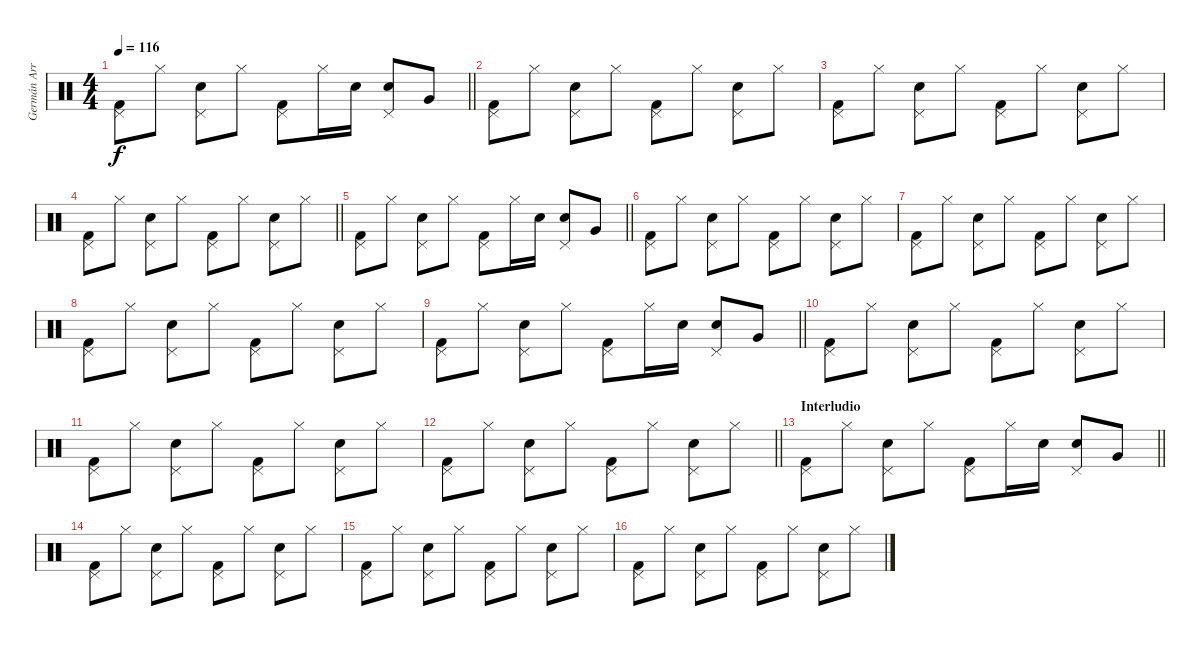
\track ("Germán Arroyo (Batería)" "Germán Arr") {instrument percussion}
\staff {score}
\articulation defaults
\ts (4 4)
\tempo 116
\clef neutral
\barLineRight lightlight
\ks c
("Pedal Hi-Hat (hit)" "Kick (hit) 2").8{dy f} "Hi-Hat (closed)".8 ("Pedal Hi-Hat (hit)" "Snare (hit) 2").8 "Hi-Hat (closed)".8 ("Pedal Hi-Hat (hit)" "Kick (hit) 2").8 "Hi-Hat (closed)".16 "Snare (hit) 2".16 ("Pedal Hi-Hat (hit)" "Snare (hit) 2").8 "Very Low Tom (hit)".8 |
("Pedal Hi-Hat (hit)" "Kick (hit) 2").8 "Hi-Hat (closed)".8 ("Pedal Hi-Hat (hit)" "Snare (hit) 2").8 "Hi-Hat (closed)".8 ("Pedal Hi-Hat (hit)" "Kick (hit) 2").8 "Hi-Hat (closed)".8 ("Pedal Hi-Hat (hit)" "Snare (hit) 2").8 "Hi-Hat (closed)".8 |
("Pedal Hi-Hat (hit)" "Kick (hit) 2").8 "Hi-Hat (closed)".8 ("Pedal Hi-Hat (hit)" "Snare (hit) 2").8 "Hi-Hat (closed)".8 ("Pedal Hi-Hat (hit)" "Kick (hit) 2").8 "Hi-Hat (closed)".8 ("Pedal Hi-Hat (hit)" "Snare (hit) 2").8 "Hi-Hat (closed)".8 |
\barLineRight lightlight
("Pedal Hi-Hat (hit)" "Kick (hit) 2").8 "Hi-Hat (closed)".8 ("Pedal Hi-Hat (hit)" "Snare (hit) 2").8 "Hi-Hat (closed)".8 ("Pedal Hi-Hat (hit)" "Kick (hit) 2").8 "Hi-Hat (closed)".8 ("Pedal Hi-Hat (hit)" "Snare (hit) 2").8 "Hi-Hat (closed)".8 |
\barLineRight lightlight
("Pedal Hi-Hat (hit)" "Kick (hit) 2").8 "Hi-Hat (closed)".8 ("Pedal Hi-Hat (hit)" "Snare (hit) 2").8 "Hi-Hat (closed)".8 ("Pedal Hi-Hat (hit)" "Kick (hit) 2").8 "Hi-Hat (closed)".16 "Snare (hit) 2".16 ("Pedal Hi-Hat (hit)" "Snare (hit) 2").8 "Very Low Tom (hit)".8 |
("Pedal Hi-Hat (hit)" "Kick (hit) 2").8 "Hi-Hat (closed)".8 ("Pedal Hi-Hat (hit)" "Snare (hit) 2").8 "Hi-Hat (closed)".8 ("Pedal Hi-Hat (hit)" "Kick (hit) 2").8 "Hi-Hat (closed)".8 ("Pedal Hi-Hat (hit)" "Snare (hit) 2").8 "Hi-Hat (closed)".8 |
("Pedal Hi-Hat (hit)" "Kick (hit) 2").8 "Hi-Hat (closed)".8 ("Pedal Hi-Hat (hit)" "Snare (hit) 2").8 "Hi-Hat (closed)".8 ("Pedal Hi-Hat (hit)" "Kick (hit) 2").8 "Hi-Hat (closed)".8 ("Pedal Hi-Hat (hit)" "Snare (hit) 2").8 "Hi-Hat (closed)".8 |
("Pedal Hi-Hat (hit)" "Kick (hit) 2").8 "Hi-Hat (closed)".8 ("Pedal Hi-Hat (hit)" "Snare (hit) 2").8 "Hi-Hat (closed)".8 ("Pedal Hi-Hat (hit)" "Kick (hit) 2").8 "Hi-Hat (closed)".8 ("Pedal Hi-Hat (hit)" "Snare (hit) 2").8 "Hi-Hat (closed)".8 |
\barLineRight lightlight
("Pedal Hi-Hat (hit)" "Kick (hit) 2").8 "Hi-Hat (closed)".8 ("Pedal Hi-Hat (hit)" "Snare (hit) 2").8 "Hi-Hat (closed)".8 ("Pedal Hi-Hat (hit)" "Kick (hit) 2").8 "Hi-Hat (closed)".16 "Snare (hit) 2".16 ("Pedal Hi-Hat (hit)" "Snare (hit) 2").8 "Very Low Tom (hit)".8 |
("Pedal Hi-Hat (hit)" "Kick (hit) 2").8 "Hi-Hat (closed)".8 ("Pedal Hi-Hat (hit)" "Snare (hit) 2").8 "Hi-Hat (closed)".8 ("Pedal Hi-Hat (hit)" "Kick (hit) 2").8 "Hi-Hat (closed)".8 ("Pedal Hi-Hat (hit)" "Snare (hit) 2").8 "Hi-Hat (closed)".8 |
("Pedal Hi-Hat (hit)" "Kick (hit) 2").8 "Hi-Hat (closed)".8 ("Pedal Hi-Hat (hit)" "Snare (hit) 2").8 "Hi-Hat (closed)".8 ("Pedal Hi-Hat (hit)" "Kick (hit) 2").8 "Hi-Hat (closed)".8 ("Pedal Hi-Hat (hit)" "Snare (hit) 2").8 "Hi-Hat (closed)".8 |
\barLineRight lightlight
("Pedal Hi-Hat (hit)" "Kick (hit) 2").8 "Hi-Hat (closed)".8 ("Pedal Hi-Hat (hit)" "Snare (hit) 2").8 "Hi-Hat (closed)".8 ("Pedal Hi-Hat (hit)" "Kick (hit) 2").8 "Hi-Hat (closed)".8 ("Pedal Hi-Hat (hit)" "Snare (hit) 2").8 "Hi-Hat (closed)".8 |
\section ("" "Interludio")
\barLineRight lightlight
("Pedal Hi-Hat (hit)" "Kick (hit) 2").8 "Hi-Hat (closed)".8 ("Pedal Hi-Hat (hit)" "Snare (hit) 2").8 "Hi-Hat (closed)".8 ("Pedal Hi-Hat (hit)" "Kick (hit) 2").8 "Hi-Hat (closed)".16 "Snare (hit) 2".16 ("Pedal Hi-Hat (hit)" "Snare (hit) 2").8 "Very Low Tom (hit)".8 |
("Pedal Hi-Hat (hit)" "Kick (hit) 2").8 "Hi-Hat (closed)".8 ("Pedal Hi-Hat (hit)" "Snare (hit) 2").8 "Hi-Hat (closed)".8 ("Pedal Hi-Hat (hit)" "Kick (hit) 2").8 "Hi-Hat (closed)".8 ("Pedal Hi-Hat (hit)" "Snare (hit) 2").8 "Hi-Hat (closed)".8 |
("Pedal Hi-Hat (hit)" "Kick (hit) 2").8 "Hi-Hat (closed)".8 ("Pedal Hi-Hat (hit)" "Snare (hit) 2").8 "Hi-Hat (closed)".8 ("Pedal Hi-Hat (hit)" "Kick (hit) 2").8 "Hi-Hat (closed)".8 ("Pedal Hi-Hat (hit)" "Snare (hit) 2").8 "Hi-Hat (closed)".8 |
("Pedal Hi-Hat (hit)" "Kick (hit) 2").8 "Hi-Hat (closed)".8 ("Pedal Hi-Hat (hit)" "Snare (hit) 2").8 "Hi-Hat (closed)".8 ("Pedal Hi-Hat (hit)" "Kick (hit) 2").8 "Hi-Hat (closed)".8 ("Pedal Hi-Hat (hit)" "Snare (hit) 2").8 "Hi-Hat (closed)".8
